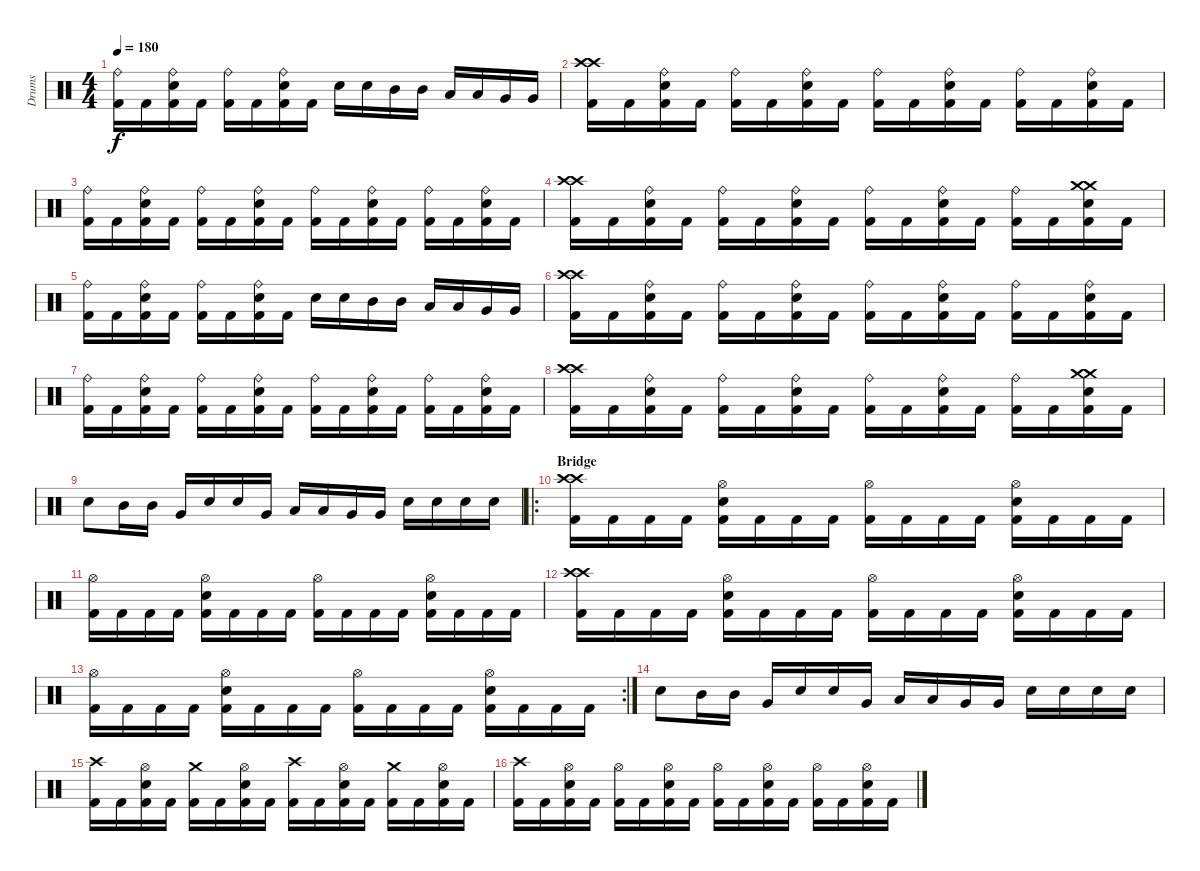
\track ("Drums" "Drums") {instrument percussion}
\staff {score}
\articulation defaults
\ts (4 4)
\tempo 180
\clef neutral
\ks c
("Ride (bell)" "Kick (hit) 2").16{dy f} "Kick (hit) 2".16 ("Ride (bell)" "Snare (hit) 2" "Kick (hit) 2").16 "Kick (hit) 2".16 ("Ride (bell)" "Kick (hit) 2").16 "Kick (hit) 2".16 ("Ride (bell)" "Snare (hit) 2" "Kick (hit) 2").16 "Kick (hit) 2".16 "Snare (hit) 2".16 "Snare (hit) 2".16 "Mid Tom (hit)".16 "Mid Tom (hit)".16 "Low Tom (hit)".16 "Low Tom (hit)".16 "Very Low Tom (hit)".16 "Very Low Tom (hit)".16 |
("Crash high (hit)" "Crash high (hit)" "Kick (hit) 2").16 "Kick (hit) 2".16 ("Ride (bell)" "Snare (hit) 2" "Kick (hit) 2").16 "Kick (hit) 2".16 ("Ride (bell)" "Kick (hit) 2").16 "Kick (hit) 2".16 ("Ride (bell)" "Snare (hit) 2" "Kick (hit) 2").16 "Kick (hit) 2".16 ("Ride (bell)" "Kick (hit) 2").16 "Kick (hit) 2".16 ("Ride (bell)" "Snare (hit) 2" "Kick (hit) 2").16 "Kick (hit) 2".16 ("Ride (bell)" "Kick (hit) 2").16 "Kick (hit) 2".16 ("Ride (bell)" "Snare (hit) 2" "Kick (hit) 2").16 "Kick (hit) 2".16 |
("Ride (bell)" "Kick (hit) 2").16 "Kick (hit) 2".16 ("Ride (bell)" "Snare (hit) 2" "Kick (hit) 2").16 "Kick (hit) 2".16 ("Ride (bell)" "Kick (hit) 2").16 "Kick (hit) 2".16 ("Ride (bell)" "Snare (hit) 2" "Kick (hit) 2").16 "Kick (hit) 2".16 ("Ride (bell)" "Kick (hit) 2").16 "Kick (hit) 2".16 ("Ride (bell)" "Snare (hit) 2" "Kick (hit) 2").16 "Kick (hit) 2".16 ("Ride (bell)" "Kick (hit) 2").16 "Kick (hit) 2".16 ("Ride (bell)" "Snare (hit) 2" "Kick (hit) 2").16 "Kick (hit) 2".16 |
("Crash high (hit)" "Crash high (hit)" "Kick (hit) 2").16 "Kick (hit) 2".16 ("Ride (bell)" "Snare (hit) 2" "Kick (hit) 2").16 "Kick (hit) 2".16 ("Ride (bell)" "Kick (hit) 2").16 "Kick (hit) 2".16 ("Ride (bell)" "Snare (hit) 2" "Kick (hit) 2").16 "Kick (hit) 2".16 ("Ride (bell)" "Kick (hit) 2").16 "Kick (hit) 2".16 ("Ride (bell)" "Snare (hit) 2" "Kick (hit) 2").16 "Kick (hit) 2".16 ("Ride (bell)" "Kick (hit) 2").16 "Kick (hit) 2".16 ("Crash medium (hit)" "Crash medium (hit)" "Snare (hit) 2" "Kick (hit) 2").16 "Kick (hit) 2".16 |
("Ride (bell)" "Kick (hit) 2").16 "Kick (hit) 2".16 ("Ride (bell)" "Snare (hit) 2" "Kick (hit) 2").16 "Kick (hit) 2".16 ("Ride (bell)" "Kick (hit) 2").16 "Kick (hit) 2".16 ("Ride (bell)" "Snare (hit) 2" "Kick (hit) 2").16 "Kick (hit) 2".16 "Snare (hit) 2".16 "Snare (hit) 2".16 "Mid Tom (hit)".16 "Mid Tom (hit)".16 "Low Tom (hit)".16 "Low Tom (hit)".16 "Very Low Tom (hit)".16 "Very Low Tom (hit)".16 |
("Crash high (hit)" "Crash high (hit)" "Kick (hit) 2").16 "Kick (hit) 2".16 ("Ride (bell)" "Snare (hit) 2" "Kick (hit) 2").16 "Kick (hit) 2".16 ("Ride (bell)" "Kick (hit) 2").16 "Kick (hit) 2".16 ("Ride (bell)" "Snare (hit) 2" "Kick (hit) 2").16 "Kick (hit) 2".16 ("Ride (bell)" "Kick (hit) 2").16 "Kick (hit) 2".16 ("Ride (bell)" "Snare (hit) 2" "Kick (hit) 2").16 "Kick (hit) 2".16 ("Ride (bell)" "Kick (hit) 2").16 "Kick (hit) 2".16 ("Ride (bell)" "Snare (hit) 2" "Kick (hit) 2").16 "Kick (hit) 2".16 |
("Ride (bell)" "Kick (hit) 2").16 "Kick (hit) 2".16 ("Ride (bell)" "Snare (hit) 2" "Kick (hit) 2").16 "Kick (hit) 2".16 ("Ride (bell)" "Kick (hit) 2").16 "Kick (hit) 2".16 ("Ride (bell)" "Snare (hit) 2" "Kick (hit) 2").16 "Kick (hit) 2".16 ("Ride (bell)" "Kick (hit) 2").16 "Kick (hit) 2".16 ("Ride (bell)" "Snare (hit) 2" "Kick (hit) 2").16 "Kick (hit) 2".16 ("Ride (bell)" "Kick (hit) 2").16 "Kick (hit) 2".16 ("Ride (bell)" "Snare (hit) 2" "Kick (hit) 2").16 "Kick (hit) 2".16 |
("Crash high (hit)" "Crash high (hit)" "Kick (hit) 2").16 "Kick (hit) 2".16 ("Ride (bell)" "Snare (hit) 2" "Kick (hit) 2").16 "Kick (hit) 2".16 ("Ride (bell)" "Kick (hit) 2").16 "Kick (hit) 2".16 ("Ride (bell)" "Snare (hit) 2" "Kick (hit) 2").16 "Kick (hit) 2".16 ("Ride (bell)" "Kick (hit) 2").16 "Kick (hit) 2".16 ("Ride (bell)" "Snare (hit) 2" "Kick (hit) 2").16 "Kick (hit) 2".16 ("Ride (bell)" "Kick (hit) 2").16 "Kick (hit) 2".16 ("Crash medium (hit)" "Crash medium (hit)" "Snare (hit) 2" "Kick (hit) 2").16 "Kick (hit) 2".16 |
"Snare (hit) 2".8 "Mid Tom (hit)".16 "Mid Tom (hit)".16 "Very Low Tom (hit)".16 "Snare (hit) 2".16 "Snare (hit) 2".16 "Very Low Tom (hit)".16 "Low Tom (hit)".16 "Low Tom (hit)".16 "Very Low Tom (hit)".16 "Very Low Tom (hit)".16 "Snare (hit) 2".16 "Snare (hit) 2".16 "Snare (hit) 2".16 "Snare (hit) 2".16 |
\ro
\section ("" "Bridge")
("Crash high (hit)" "Crash high (hit)" "Kick (hit) 2").16 "Kick (hit) 2".16 "Kick (hit) 2".16 "Kick (hit) 2".16 ("Hi-Hat (open)" "Snare (hit) 2" "Kick (hit) 2").16 "Kick (hit) 2".16 "Kick (hit) 2".16 "Kick (hit) 2".16 ("Hi-Hat (open)" "Kick (hit) 2").16 "Kick (hit) 2".16 "Kick (hit) 2".16 "Kick (hit) 2".16 ("Hi-Hat (open)" "Snare (hit) 2" "Kick (hit) 2").16 "Kick (hit) 2".16 "Kick (hit) 2".16 "Kick (hit) 2".16 |
("Hi-Hat (open)" "Kick (hit) 2").16 "Kick (hit) 2".16 "Kick (hit) 2".16 "Kick (hit) 2".16 ("Hi-Hat (open)" "Snare (hit) 2" "Kick (hit) 2").16 "Kick (hit) 2".16 "Kick (hit) 2".16 "Kick (hit) 2".16 ("Hi-Hat (open)" "Kick (hit) 2").16 "Kick (hit) 2".16 "Kick (hit) 2".16 "Kick (hit) 2".16 ("Hi-Hat (open)" "Snare (hit) 2" "Kick (hit) 2").16 "Kick (hit) 2".16 "Kick (hit) 2".16 "Kick (hit) 2".16 |
("Crash high (hit)" "Crash high (hit)" "Kick (hit) 2").16 "Kick (hit) 2".16 "Kick (hit) 2".16 "Kick (hit) 2".16 ("Hi-Hat (open)" "Snare (hit) 2" "Kick (hit) 2").16 "Kick (hit) 2".16 "Kick (hit) 2".16 "Kick (hit) 2".16 ("Hi-Hat (open)" "Kick (hit) 2").16 "Kick (hit) 2".16 "Kick (hit) 2".16 "Kick (hit) 2".16 ("Hi-Hat (open)" "Snare (hit) 2" "Kick (hit) 2").16 "Kick (hit) 2".16 "Kick (hit) 2".16 "Kick (hit) 2".16 |
\rc 2
("Hi-Hat (open)" "Kick (hit) 2").16 "Kick (hit) 2".16 "Kick (hit) 2".16 "Kick (hit) 2".16 ("Hi-Hat (open)" "Snare (hit) 2" "Kick (hit) 2").16 "Kick (hit) 2".16 "Kick (hit) 2".16 "Kick (hit) 2".16 ("Hi-Hat (open)" "Kick (hit) 2").16 "Kick (hit) 2".16 "Kick (hit) 2".16 "Kick (hit) 2".16 ("Hi-Hat (open)" "Snare (hit) 2" "Kick (hit) 2").16 "Kick (hit) 2".16 "Kick (hit) 2".16 "Kick (hit) 2".16 |
"Snare (hit) 2".8 "Mid Tom (hit)".16 "Mid Tom (hit)".16 "Very Low Tom (hit)".16 "Snare (hit) 2".16 "Snare (hit) 2".16 "Very Low Tom (hit)".16 "Low Tom (hit)".16 "Low Tom (hit)".16 "Very Low Tom (hit)".16 "Very Low Tom (hit)".16 "Snare (hit) 2".16 "Snare (hit) 2".16 "Snare (hit) 2".16 "Snare (hit) 2".16 |
("Crash high (hit)" "Kick (hit) 2").16 "Kick (hit) 2".16 ("Hi-Hat (open)" "Snare (hit) 2" "Kick (hit) 2").16 "Kick (hit) 2".16 ("Crash medium (hit)" "Kick (hit) 2").16 "Kick (hit) 2".16 ("Hi-Hat (open)" "Snare (hit) 2" "Kick (hit) 2").16 "Kick (hit) 2".16 ("Crash high (hit)" "Kick (hit) 2").16 "Kick (hit) 2".16 ("Hi-Hat (open)" "Snare (hit) 2" "Kick (hit) 2").16 "Kick (hit) 2".16 ("Crash medium (hit)" "Kick (hit) 2").16 "Kick (hit) 2".16 ("Hi-Hat (open)" "Snare (hit) 2" "Kick (hit) 2").16 "Kick (hit) 2".16 |
("Crash high (hit)" "Kick (hit) 2").16 "Kick (hit) 2".16 ("Hi-Hat (open)" "Snare (hit) 2" "Kick (hit) 2").16 "Kick (hit) 2".16 ("Hi-Hat (open)" "Kick (hit) 2").16 "Kick (hit) 2".16 ("Hi-Hat (open)" "Snare (hit) 2" "Kick (hit) 2").16 "Kick (hit) 2".16 ("Hi-Hat (open)" "Kick (hit) 2").16 "Kick (hit) 2".16 ("Hi-Hat (open)" "Snare (hit) 2" "Kick (hit) 2").16 "Kick (hit) 2".16 ("Hi-Hat (open)" "Kick (hit) 2").16 "Kick (hit) 2".16 ("Hi-Hat (open)" "Snare (hit) 2" "Kick (hit) 2").16 "Kick (hit) 2".16
